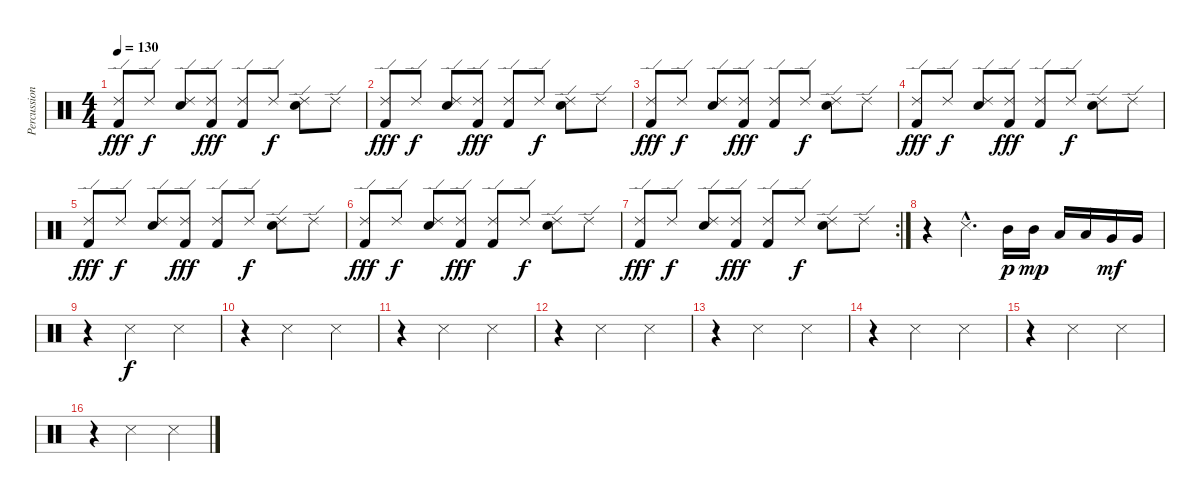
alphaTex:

\track ("Percussion" "Percussion") {instrument percussion}
\staff {score}
\articulation defaults
\ts (4 4)
\tempo 130
\clef neutral
\ks c
("Ride (edge) 2" "Kick (hit) 2").8{dy fff} "Ride (edge) 2".8{dy f} ("Ride (edge) 2" "Electric Snare (hit)").8 ("Ride (edge) 2" "Kick (hit) 2").8{dy fff} ("Ride (edge) 2" "Kick (hit) 2").8 "Ride (edge) 2".8{dy f} ("Ride (edge) 2" "Electric Snare (hit)").8 "Ride (edge) 2".8 |
("Ride (edge) 2" "Kick (hit) 2").8{dy fff} "Ride (edge) 2".8{dy f} ("Ride (edge) 2" "Electric Snare (hit)").8 ("Ride (edge) 2" "Kick (hit) 2").8{dy fff} ("Ride (edge) 2" "Kick (hit) 2").8 "Ride (edge) 2".8{dy f} ("Ride (edge) 2" "Electric Snare (hit)").8 "Ride (edge) 2".8 |
("Ride (edge) 2" "Kick (hit) 2").8{dy fff} "Ride (edge) 2".8{dy f} ("Ride (edge) 2" "Electric Snare (hit)").8 ("Ride (edge) 2" "Kick (hit) 2").8{dy fff} ("Ride (edge) 2" "Kick (hit) 2").8 "Ride (edge) 2".8{dy f} ("Ride (edge) 2" "Electric Snare (hit)").8 "Ride (edge) 2".8 |
("Ride (edge) 2" "Kick (hit) 2").8{dy fff} "Ride (edge) 2".8{dy f} ("Ride (edge) 2" "Electric Snare (hit)").8 ("Ride (edge) 2" "Kick (hit) 2").8{dy fff} ("Ride (edge) 2" "Kick (hit) 2").8 "Ride (edge) 2".8{dy f} ("Ride (edge) 2" "Electric Snare (hit)").8 "Ride (edge) 2".8 |
("Ride (edge) 2" "Kick (hit) 2").8{dy fff} "Ride (edge) 2".8{dy f} ("Ride (edge) 2" "Electric Snare (hit)").8 ("Ride (edge) 2" "Kick (hit) 2").8{dy fff} ("Ride (edge) 2" "Kick (hit) 2").8 "Ride (edge) 2".8{dy f} ("Ride (edge) 2" "Electric Snare (hit)").8 "Ride (edge) 2".8 |
("Ride (edge) 2" "Kick (hit) 2").8{dy fff} "Ride (edge) 2".8{dy f} ("Ride (edge) 2" "Electric Snare (hit)").8 ("Ride (edge) 2" "Kick (hit) 2").8{dy fff} ("Ride (edge) 2" "Kick (hit) 2").8 "Ride (edge) 2".8{dy f} ("Ride (edge) 2" "Electric Snare (hit)").8 "Ride (edge) 2".8 |
\rc 2
("Ride (edge) 2" "Kick (hit) 2").8{dy fff} "Ride (edge) 2".8{dy f} ("Ride (edge) 2" "Electric Snare (hit)").8 ("Ride (edge) 2" "Kick (hit) 2").8{dy fff} ("Ride (edge) 2" "Kick (hit) 2").8 "Ride (edge) 2".8{dy f} ("Ride (edge) 2" "Electric Snare (hit)").8 "Ride (edge) 2".8 |
r.4 "Snare (side stick) 3"{hac}.4{d} "Mid Tom (hit)".16{dy p} "Mid Tom (hit)".16{dy mp} "Low Tom (hit)".16 "Low Tom (hit)".16 "Very Low Tom (hit)".16{dy mf} "Very Low Tom (hit)".16 |
r.4 "Snare (side stick) 3".2{dy f} "Snare (side stick) 3".4 |
r.4 "Snare (side stick) 3".2 "Snare (side stick) 3".4 |
r.4 "Snare (side stick) 3".2 "Snare (side stick) 3".4 |
r.4 "Snare (side stick) 3".2 "Snare (side stick) 3".4 |
r.4 "Snare (side stick) 3".2 "Snare (side stick) 3".4 |
r.4 "Snare (side stick) 3".2 "Snare (side stick) 3".4 |
r.4 "Snare (side stick) 3".2 "Snare (side stick) 3".4 |
r.4 "Snare (side stick) 3".2 "Snare (side stick) 3".4
